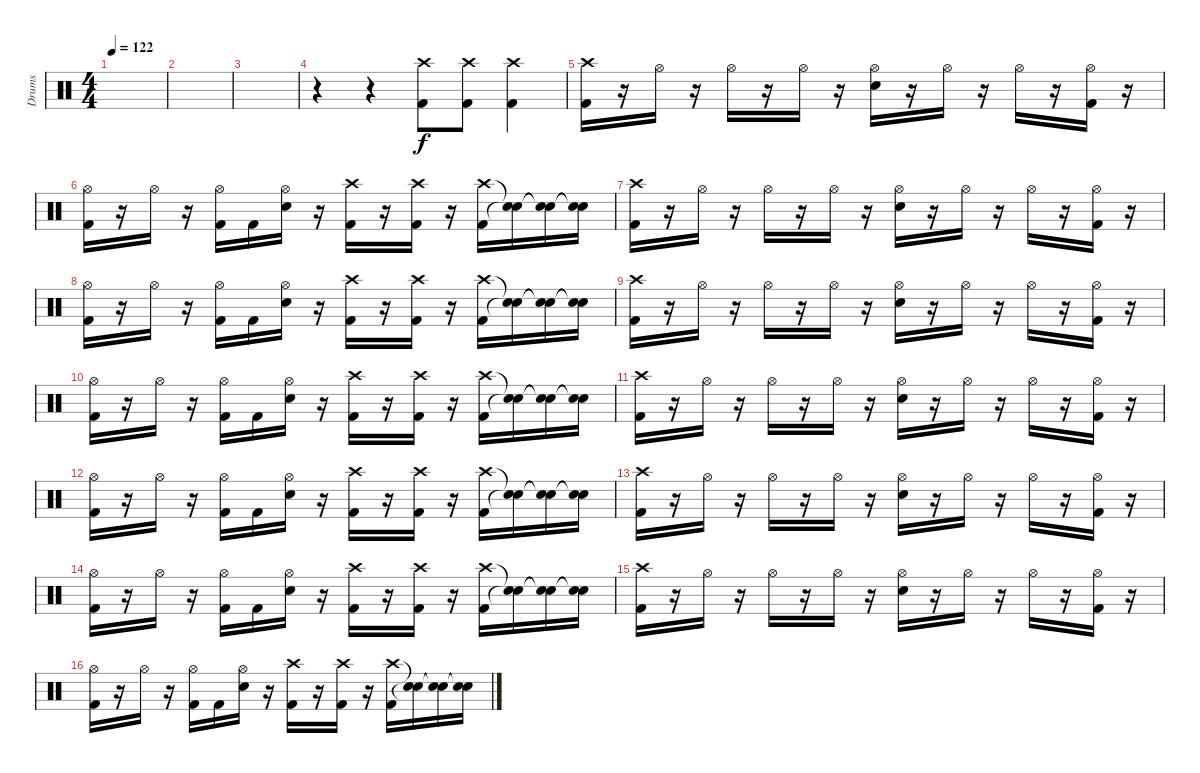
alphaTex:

\track ("Drums" "Drums") {instrument percussion}
\staff {score}
\articulation defaults
\ts (4 4)
\tempo 122
\clef neutral
\ks c
|
|
|
r.4 r.4 ("Crash high (hit)" "Kick (hit) 2").8 ("Crash high (hit)" "Kick (hit) 2").8 ("Crash high (hit)" "Kick (hit) 2").4 |
("Crash high (hit)" "Kick (hit) 2").16 r.16 "Hi-Hat (open)".16 r.16 "Hi-Hat (open)".16 r.16 "Hi-Hat (open)".16 r.16 ("Hi-Hat (open)" "Electric Snare (hit)").16 r.16 "Hi-Hat (open)".16 r.16 "Hi-Hat (open)".16 r.16 ("Hi-Hat (open)" "Kick (hit) 2").16 r.16 |
("Hi-Hat (open)" "Kick (hit) 2").16 r.16 "Hi-Hat (open)".16 r.16 ("Hi-Hat (open)" "Kick (hit) 2").16 "Kick (hit) 2".16 ("Hi-Hat (open)" "Electric Snare (hit)").16 r.16 ("Crash high (hit)" "Kick (hit) 2").16 r.16 ("Crash high (hit)" "Kick (hit) 2").16 r.16 ("Crash high (hit)" "Kick (hit) 2").16 ("Snare (hit)"{t} "Snare (hit)"{t}).16 ("Snare (hit)"{t} "Snare (hit)"{t}).16 ("Snare (hit)"{t} "Snare (hit)"{t}).16 |
("Crash high (hit)" "Kick (hit) 2").16 r.16 "Hi-Hat (open)".16 r.16 "Hi-Hat (open)".16 r.16 "Hi-Hat (open)".16 r.16 ("Hi-Hat (open)" "Electric Snare (hit)").16 r.16 "Hi-Hat (open)".16 r.16 "Hi-Hat (open)".16 r.16 ("Hi-Hat (open)" "Kick (hit) 2").16 r.16 |
("Hi-Hat (open)" "Kick (hit) 2").16 r.16 "Hi-Hat (open)".16 r.16 ("Hi-Hat (open)" "Kick (hit) 2").16 "Kick (hit) 2".16 ("Hi-Hat (open)" "Electric Snare (hit)").16 r.16 ("Crash high (hit)" "Kick (hit) 2").16 r.16 ("Crash high (hit)" "Kick (hit) 2").16 r.16 ("Crash high (hit)" "Kick (hit) 2").16 ("Snare (hit)"{t} "Snare (hit)"{t}).16 ("Snare (hit)"{t} "Snare (hit)"{t}).16 ("Snare (hit)"{t} "Snare (hit)"{t}).16 |
("Crash high (hit)" "Kick (hit) 2").16 r.16 "Hi-Hat (open)".16 r.16 "Hi-Hat (open)".16 r.16 "Hi-Hat (open)".16 r.16 ("Hi-Hat (open)" "Electric Snare (hit)").16 r.16 "Hi-Hat (open)".16 r.16 "Hi-Hat (open)".16 r.16 ("Hi-Hat (open)" "Kick (hit) 2").16 r.16 |
("Hi-Hat (open)" "Kick (hit) 2").16 r.16 "Hi-Hat (open)".16 r.16 ("Hi-Hat (open)" "Kick (hit) 2").16 "Kick (hit) 2".16 ("Hi-Hat (open)" "Electric Snare (hit)").16 r.16 ("Crash high (hit)" "Kick (hit) 2").16 r.16 ("Crash high (hit)" "Kick (hit) 2").16 r.16 ("Crash high (hit)" "Kick (hit) 2").16 ("Snare (hit)"{t} "Snare (hit)"{t}).16 ("Snare (hit)"{t} "Snare (hit)"{t}).16 ("Snare (hit)"{t} "Snare (hit)"{t}).16 |
("Crash high (hit)" "Kick (hit) 2").16 r.16 "Hi-Hat (open)".16 r.16 "Hi-Hat (open)".16 r.16 "Hi-Hat (open)".16 r.16 ("Hi-Hat (open)" "Electric Snare (hit)").16 r.16 "Hi-Hat (open)".16 r.16 "Hi-Hat (open)".16 r.16 ("Hi-Hat (open)" "Kick (hit) 2").16 r.16 |
("Hi-Hat (open)" "Kick (hit) 2").16 r.16 "Hi-Hat (open)".16 r.16 ("Hi-Hat (open)" "Kick (hit) 2").16 "Kick (hit) 2".16 ("Hi-Hat (open)" "Electric Snare (hit)").16 r.16 ("Crash high (hit)" "Kick (hit) 2").16 r.16 ("Crash high (hit)" "Kick (hit) 2").16 r.16 ("Crash high (hit)" "Kick (hit) 2").16 ("Snare (hit)"{t} "Snare (hit)"{t}).16 ("Snare (hit)"{t} "Snare (hit)"{t}).16 ("Snare (hit)"{t} "Snare (hit)"{t}).16 |
("Crash high (hit)" "Kick (hit) 2").16 r.16 "Hi-Hat (open)".16 r.16 "Hi-Hat (open)".16 r.16 "Hi-Hat (open)".16 r.16 ("Hi-Hat (open)" "Electric Snare (hit)").16 r.16 "Hi-Hat (open)".16 r.16 "Hi-Hat (open)".16 r.16 ("Hi-Hat (open)" "Kick (hit) 2").16 r.16 |
("Hi-Hat (open)" "Kick (hit) 2").16 r.16 "Hi-Hat (open)".16 r.16 ("Hi-Hat (open)" "Kick (hit) 2").16 "Kick (hit) 2".16 ("Hi-Hat (open)" "Electric Snare (hit)").16 r.16 ("Crash high (hit)" "Kick (hit) 2").16 r.16 ("Crash high (hit)" "Kick (hit) 2").16 r.16 ("Crash high (hit)" "Kick (hit) 2").16 ("Snare (hit)"{t} "Snare (hit)"{t}).16 ("Snare (hit)"{t} "Snare (hit)"{t}).16 ("Snare (hit)"{t} "Snare (hit)"{t}).16 |
("Crash high (hit)" "Kick (hit) 2").16 r.16 "Hi-Hat (open)".16 r.16 "Hi-Hat (open)".16 r.16 "Hi-Hat (open)".16 r.16 ("Hi-Hat (open)" "Electric Snare (hit)").16 r.16 "Hi-Hat (open)".16 r.16 "Hi-Hat (open)".16 r.16 ("Hi-Hat (open)" "Kick (hit) 2").16 r.16 |
("Hi-Hat (open)" "Kick (hit) 2").16 r.16 "Hi-Hat (open)".16 r.16 ("Hi-Hat (open)" "Kick (hit) 2").16 "Kick (hit) 2".16 ("Hi-Hat (open)" "Electric Snare (hit)").16 r.16 ("Crash high (hit)" "Kick (hit) 2").16 r.16 ("Crash high (hit)" "Kick (hit) 2").16 r.16 ("Crash high (hit)" "Kick (hit) 2").16 ("Snare (hit)"{t} "Snare (hit)"{t}).16 ("Snare (hit)"{t} "Snare (hit)"{t}).16 ("Snare (hit)"{t} "Snare (hit)"{t}).16
